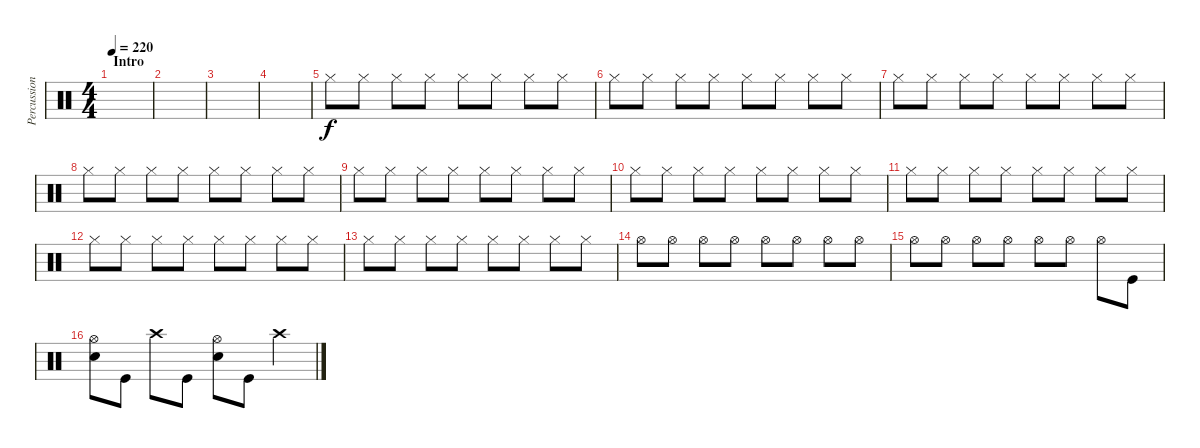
\track ("Percussion" "Percussion") {instrument percussion}
\staff {score}
\articulation defaults
\ts (4 4)
\section ("" "Intro")
\tempo 220
\clef neutral
\ks c
|
|
|
|
"Hi-Hat (closed)".8 "Hi-Hat (closed)".8 "Hi-Hat (closed)".8 "Hi-Hat (closed)".8 "Hi-Hat (closed)".8 "Hi-Hat (closed)".8 "Hi-Hat (closed)".8 "Hi-Hat (closed)".8 |
"Hi-Hat (closed)".8 "Hi-Hat (closed)".8 "Hi-Hat (closed)".8 "Hi-Hat (closed)".8 "Hi-Hat (closed)".8 "Hi-Hat (closed)".8 "Hi-Hat (closed)".8 "Hi-Hat (closed)".8 |
"Hi-Hat (closed)".8 "Hi-Hat (closed)".8 "Hi-Hat (closed)".8 "Hi-Hat (closed)".8 "Hi-Hat (closed)".8 "Hi-Hat (closed)".8 "Hi-Hat (closed)".8 "Hi-Hat (closed)".8 |
"Hi-Hat (closed)".8 "Hi-Hat (closed)".8 "Hi-Hat (closed)".8 "Hi-Hat (closed)".8 "Hi-Hat (closed)".8 "Hi-Hat (closed)".8 "Hi-Hat (closed)".8 "Hi-Hat (closed)".8 |
"Hi-Hat (closed)".8 "Hi-Hat (closed)".8 "Hi-Hat (closed)".8 "Hi-Hat (closed)".8 "Hi-Hat (closed)".8 "Hi-Hat (closed)".8 "Hi-Hat (closed)".8 "Hi-Hat (closed)".8 |
"Hi-Hat (closed)".8 "Hi-Hat (closed)".8 "Hi-Hat (closed)".8 "Hi-Hat (closed)".8 "Hi-Hat (closed)".8 "Hi-Hat (closed)".8 "Hi-Hat (closed)".8 "Hi-Hat (closed)".8 |
"Hi-Hat (closed)".8 "Hi-Hat (closed)".8 "Hi-Hat (closed)".8 "Hi-Hat (closed)".8 "Hi-Hat (closed)".8 "Hi-Hat (closed)".8 "Hi-Hat (closed)".8 "Hi-Hat (closed)".8 |
"Hi-Hat (closed)".8 "Hi-Hat (closed)".8 "Hi-Hat (closed)".8 "Hi-Hat (closed)".8 "Hi-Hat (closed)".8 "Hi-Hat (closed)".8 "Hi-Hat (closed)".8 "Hi-Hat (closed)".8 |
"Hi-Hat (closed)".8 "Hi-Hat (closed)".8 "Hi-Hat (closed)".8 "Hi-Hat (closed)".8 "Hi-Hat (closed)".8 "Hi-Hat (closed)".8 "Hi-Hat (closed)".8 "Hi-Hat (closed)".8 |
"Hi-Hat (open)".8 "Hi-Hat (open)".8 "Hi-Hat (open)".8 "Hi-Hat (open)".8 "Hi-Hat (open)".8 "Hi-Hat (open)".8 "Hi-Hat (open)".8 "Hi-Hat (open)".8 |
"Hi-Hat (open)".8 "Hi-Hat (open)".8 "Hi-Hat (open)".8 "Hi-Hat (open)".8 "Hi-Hat (open)".8 "Hi-Hat (open)".8 "Hi-Hat (open)".8 "Kick (hit)".8 |
("Hi-Hat (open)" "Snare (hit) 2").8 "Kick (hit)".8 "Crash high (hit)".8 "Kick (hit)".8 ("Hi-Hat (open)" "Snare (hit) 2").8 "Kick (hit)".8 "Crash high (hit)".4
